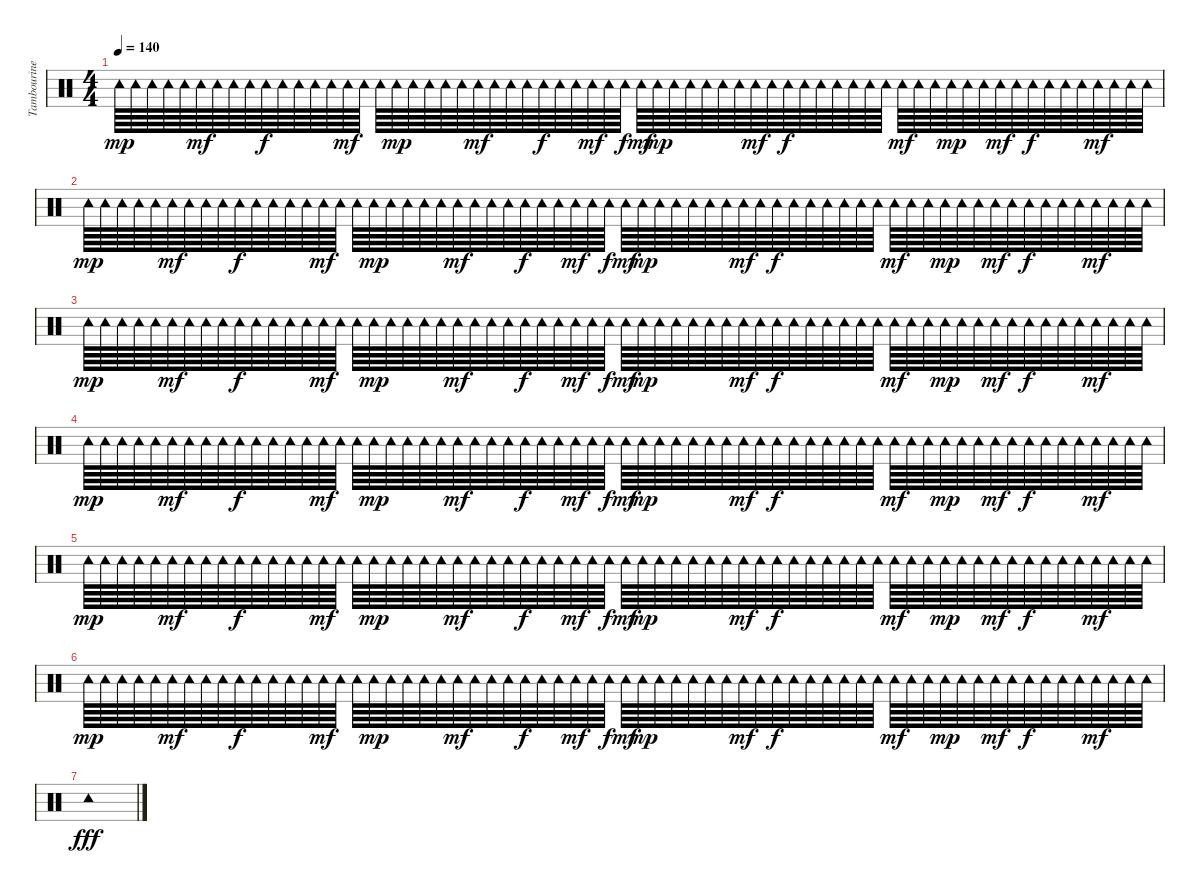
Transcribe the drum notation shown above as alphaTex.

\track ("Tambourine" "Tambourine") {instrument percussion}
\staff {score}
\articulation defaults
\ts (4 4)
\tempo 140
\clef neutral
\ks c "Tambourine (hit)".64{dy mp} "Tambourine (hit)".64 "Tambourine (hit)".64 "Tambourine (hit)".64 "Tambourine (hit)".64 "Tambourine (hit)".64{dy mf} "Tambourine (hit)".64 "Tambourine (hit)".64 "Tambourine (hit)".64 "Tambourine (hit)".64{dy f} "Tambourine (hit)".64 "Tambourine (hit)".64 "Tambourine (hit)".64 "Tambourine (hit)".64 "Tambourine (hit)".64{dy mf} "Tambourine (hit)".64 "Tambourine (hit)".64 "Tambourine (hit)".64{dy mp} "Tambourine (hit)".64 "Tambourine (hit)".64 "Tambourine (hit)".64 "Tambourine (hit)".64 "Tambourine (hit)".64{dy mf} "Tambourine (hit)".64 "Tambourine (hit)".64 "Tambourine (hit)".64 "Tambourine (hit)".64{dy f} "Tambourine (hit)".64 "Tambourine (hit)".64 "Tambourine (hit)".64{dy mf} "Tambourine (hit)".64 "Tambourine (hit)".64{dy f} "Tambourine (hit)".64{dy mf} "Tambourine (hit)".64{dy mp} "Tambourine (hit)".64 "Tambourine (hit)".64 "Tambourine (hit)".64 "Tambourine (hit)".64 "Tambourine (hit)".64 "Tambourine (hit)".64{dy mf} "Tambourine (hit)".64 "Tambourine (hit)".64{dy f} "Tambourine (hit)".64 "Tambourine (hit)".64 "Tambourine (hit)".64 "Tambourine (hit)".64 "Tambourine (hit)".64 "Tambourine (hit)".64 "Tambourine (hit)".64{dy mf} "Tambourine (hit)".64 "Tambourine (hit)".64 "Tambourine (hit)".64{dy mp} "Tambourine (hit)".64 "Tambourine (hit)".64 "Tambourine (hit)".64{dy mf} "Tambourine (hit)".64 "Tambourine (hit)".64{dy f} "Tambourine (hit)".64 "Tambourine (hit)".64 "Tambourine (hit)".64 "Tambourine (hit)".64{dy mf} "Tambourine (hit)".64 "Tambourine (hit)".64 "Tambourine (hit)".64
|
"Tambourine (hit)".64{dy mp} "Tambourine (hit)".64 "Tambourine (hit)".64 "Tambourine (hit)".64 "Tambourine (hit)".64 "Tambourine (hit)".64{dy mf} "Tambourine (hit)".64 "Tambourine (hit)".64 "Tambourine (hit)".64 "Tambourine (hit)".64{dy f} "Tambourine (hit)".64 "Tambourine (hit)".64 "Tambourine (hit)".64 "Tambourine (hit)".64 "Tambourine (hit)".64{dy mf} "Tambourine (hit)".64 "Tambourine (hit)".64 "Tambourine (hit)".64{dy mp} "Tambourine (hit)".64 "Tambourine (hit)".64 "Tambourine (hit)".64 "Tambourine (hit)".64 "Tambourine (hit)".64{dy mf} "Tambourine (hit)".64 "Tambourine (hit)".64 "Tambourine (hit)".64 "Tambourine (hit)".64{dy f} "Tambourine (hit)".64 "Tambourine (hit)".64 "Tambourine (hit)".64{dy mf} "Tambourine (hit)".64 "Tambourine (hit)".64{dy f} "Tambourine (hit)".64{dy mf} "Tambourine (hit)".64{dy mp} "Tambourine (hit)".64 "Tambourine (hit)".64 "Tambourine (hit)".64 "Tambourine (hit)".64 "Tambourine (hit)".64 "Tambourine (hit)".64{dy mf} "Tambourine (hit)".64 "Tambourine (hit)".64{dy f} "Tambourine (hit)".64 "Tambourine (hit)".64 "Tambourine (hit)".64 "Tambourine (hit)".64 "Tambourine (hit)".64 "Tambourine (hit)".64 "Tambourine (hit)".64{dy mf} "Tambourine (hit)".64 "Tambourine (hit)".64 "Tambourine (hit)".64{dy mp} "Tambourine (hit)".64 "Tambourine (hit)".64 "Tambourine (hit)".64{dy mf} "Tambourine (hit)".64 "Tambourine (hit)".64{dy f} "Tambourine (hit)".64 "Tambourine (hit)".64 "Tambourine (hit)".64 "Tambourine (hit)".64{dy mf} "Tambourine (hit)".64 "Tambourine (hit)".64 "Tambourine (hit)".64 |
"Tambourine (hit)".64{dy mp} "Tambourine (hit)".64 "Tambourine (hit)".64 "Tambourine (hit)".64 "Tambourine (hit)".64 "Tambourine (hit)".64{dy mf} "Tambourine (hit)".64 "Tambourine (hit)".64 "Tambourine (hit)".64 "Tambourine (hit)".64{dy f} "Tambourine (hit)".64 "Tambourine (hit)".64 "Tambourine (hit)".64 "Tambourine (hit)".64 "Tambourine (hit)".64{dy mf} "Tambourine (hit)".64 "Tambourine (hit)".64 "Tambourine (hit)".64{dy mp} "Tambourine (hit)".64 "Tambourine (hit)".64 "Tambourine (hit)".64 "Tambourine (hit)".64 "Tambourine (hit)".64{dy mf} "Tambourine (hit)".64 "Tambourine (hit)".64 "Tambourine (hit)".64 "Tambourine (hit)".64{dy f} "Tambourine (hit)".64 "Tambourine (hit)".64 "Tambourine (hit)".64{dy mf} "Tambourine (hit)".64 "Tambourine (hit)".64{dy f} "Tambourine (hit)".64{dy mf} "Tambourine (hit)".64{dy mp} "Tambourine (hit)".64 "Tambourine (hit)".64 "Tambourine (hit)".64 "Tambourine (hit)".64 "Tambourine (hit)".64 "Tambourine (hit)".64{dy mf} "Tambourine (hit)".64 "Tambourine (hit)".64{dy f} "Tambourine (hit)".64 "Tambourine (hit)".64 "Tambourine (hit)".64 "Tambourine (hit)".64 "Tambourine (hit)".64 "Tambourine (hit)".64 "Tambourine (hit)".64{dy mf} "Tambourine (hit)".64 "Tambourine (hit)".64 "Tambourine (hit)".64{dy mp} "Tambourine (hit)".64 "Tambourine (hit)".64 "Tambourine (hit)".64{dy mf} "Tambourine (hit)".64 "Tambourine (hit)".64{dy f} "Tambourine (hit)".64 "Tambourine (hit)".64 "Tambourine (hit)".64 "Tambourine (hit)".64{dy mf} "Tambourine (hit)".64 "Tambourine (hit)".64 "Tambourine (hit)".64 |
"Tambourine (hit)".64{dy mp} "Tambourine (hit)".64 "Tambourine (hit)".64 "Tambourine (hit)".64 "Tambourine (hit)".64 "Tambourine (hit)".64{dy mf} "Tambourine (hit)".64 "Tambourine (hit)".64 "Tambourine (hit)".64 "Tambourine (hit)".64{dy f} "Tambourine (hit)".64 "Tambourine (hit)".64 "Tambourine (hit)".64 "Tambourine (hit)".64 "Tambourine (hit)".64{dy mf} "Tambourine (hit)".64 "Tambourine (hit)".64 "Tambourine (hit)".64{dy mp} "Tambourine (hit)".64 "Tambourine (hit)".64 "Tambourine (hit)".64 "Tambourine (hit)".64 "Tambourine (hit)".64{dy mf} "Tambourine (hit)".64 "Tambourine (hit)".64 "Tambourine (hit)".64 "Tambourine (hit)".64{dy f} "Tambourine (hit)".64 "Tambourine (hit)".64 "Tambourine (hit)".64{dy mf} "Tambourine (hit)".64 "Tambourine (hit)".64{dy f} "Tambourine (hit)".64{dy mf} "Tambourine (hit)".64{dy mp} "Tambourine (hit)".64 "Tambourine (hit)".64 "Tambourine (hit)".64 "Tambourine (hit)".64 "Tambourine (hit)".64 "Tambourine (hit)".64{dy mf} "Tambourine (hit)".64 "Tambourine (hit)".64{dy f} "Tambourine (hit)".64 "Tambourine (hit)".64 "Tambourine (hit)".64 "Tambourine (hit)".64 "Tambourine (hit)".64 "Tambourine (hit)".64 "Tambourine (hit)".64{dy mf} "Tambourine (hit)".64 "Tambourine (hit)".64 "Tambourine (hit)".64{dy mp} "Tambourine (hit)".64 "Tambourine (hit)".64 "Tambourine (hit)".64{dy mf} "Tambourine (hit)".64 "Tambourine (hit)".64{dy f} "Tambourine (hit)".64 "Tambourine (hit)".64 "Tambourine (hit)".64 "Tambourine (hit)".64{dy mf} "Tambourine (hit)".64 "Tambourine (hit)".64 "Tambourine (hit)".64 |
"Tambourine (hit)".64{dy mp} "Tambourine (hit)".64 "Tambourine (hit)".64 "Tambourine (hit)".64 "Tambourine (hit)".64 "Tambourine (hit)".64{dy mf} "Tambourine (hit)".64 "Tambourine (hit)".64 "Tambourine (hit)".64 "Tambourine (hit)".64{dy f} "Tambourine (hit)".64 "Tambourine (hit)".64 "Tambourine (hit)".64 "Tambourine (hit)".64 "Tambourine (hit)".64{dy mf} "Tambourine (hit)".64 "Tambourine (hit)".64 "Tambourine (hit)".64{dy mp} "Tambourine (hit)".64 "Tambourine (hit)".64 "Tambourine (hit)".64 "Tambourine (hit)".64 "Tambourine (hit)".64{dy mf} "Tambourine (hit)".64 "Tambourine (hit)".64 "Tambourine (hit)".64 "Tambourine (hit)".64{dy f} "Tambourine (hit)".64 "Tambourine (hit)".64 "Tambourine (hit)".64{dy mf} "Tambourine (hit)".64 "Tambourine (hit)".64{dy f} "Tambourine (hit)".64{dy mf} "Tambourine (hit)".64{dy mp} "Tambourine (hit)".64 "Tambourine (hit)".64 "Tambourine (hit)".64 "Tambourine (hit)".64 "Tambourine (hit)".64 "Tambourine (hit)".64{dy mf} "Tambourine (hit)".64 "Tambourine (hit)".64{dy f} "Tambourine (hit)".64 "Tambourine (hit)".64 "Tambourine (hit)".64 "Tambourine (hit)".64 "Tambourine (hit)".64 "Tambourine (hit)".64 "Tambourine (hit)".64{dy mf} "Tambourine (hit)".64 "Tambourine (hit)".64 "Tambourine (hit)".64{dy mp} "Tambourine (hit)".64 "Tambourine (hit)".64 "Tambourine (hit)".64{dy mf} "Tambourine (hit)".64 "Tambourine (hit)".64{dy f} "Tambourine (hit)".64 "Tambourine (hit)".64 "Tambourine (hit)".64 "Tambourine (hit)".64{dy mf} "Tambourine (hit)".64 "Tambourine (hit)".64 "Tambourine (hit)".64 |
"Tambourine (hit)".64{dy mp} "Tambourine (hit)".64 "Tambourine (hit)".64 "Tambourine (hit)".64 "Tambourine (hit)".64 "Tambourine (hit)".64{dy mf} "Tambourine (hit)".64 "Tambourine (hit)".64 "Tambourine (hit)".64 "Tambourine (hit)".64{dy f} "Tambourine (hit)".64 "Tambourine (hit)".64 "Tambourine (hit)".64 "Tambourine (hit)".64 "Tambourine (hit)".64{dy mf} "Tambourine (hit)".64 "Tambourine (hit)".64 "Tambourine (hit)".64{dy mp} "Tambourine (hit)".64 "Tambourine (hit)".64 "Tambourine (hit)".64 "Tambourine (hit)".64 "Tambourine (hit)".64{dy mf} "Tambourine (hit)".64 "Tambourine (hit)".64 "Tambourine (hit)".64 "Tambourine (hit)".64{dy f} "Tambourine (hit)".64 "Tambourine (hit)".64 "Tambourine (hit)".64{dy mf} "Tambourine (hit)".64 "Tambourine (hit)".64{dy f} "Tambourine (hit)".64{dy mf} "Tambourine (hit)".64{dy mp} "Tambourine (hit)".64 "Tambourine (hit)".64 "Tambourine (hit)".64 "Tambourine (hit)".64 "Tambourine (hit)".64 "Tambourine (hit)".64{dy mf} "Tambourine (hit)".64 "Tambourine (hit)".64{dy f} "Tambourine (hit)".64 "Tambourine (hit)".64 "Tambourine (hit)".64 "Tambourine (hit)".64 "Tambourine (hit)".64 "Tambourine (hit)".64 "Tambourine (hit)".64{dy mf} "Tambourine (hit)".64 "Tambourine (hit)".64 "Tambourine (hit)".64{dy mp} "Tambourine (hit)".64 "Tambourine (hit)".64 "Tambourine (hit)".64{dy mf} "Tambourine (hit)".64 "Tambourine (hit)".64{dy f} "Tambourine (hit)".64 "Tambourine (hit)".64 "Tambourine (hit)".64 "Tambourine (hit)".64{dy mf} "Tambourine (hit)".64 "Tambourine (hit)".64 "Tambourine (hit)".64 |
"Tambourine (hit)".1{dy fff}
